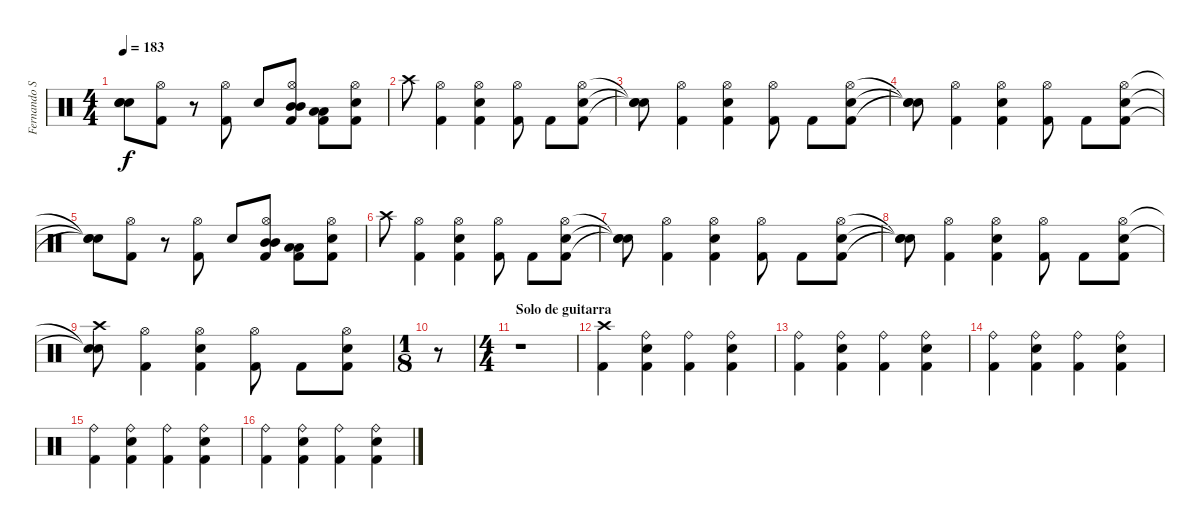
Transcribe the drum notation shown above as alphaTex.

\track ("Fernando Scarcella" "Fernando S") {instrument percussion}
\staff {score}
\articulation defaults
\ts (4 4)
\tempo 183
\clef neutral
\ks c
("Snare (hit)"{t} "Snare (hit)"{t} "Snare (hit)"{t}).8{dy f} ("Kick (hit) 2" "Hi-Hat (open)").8 r.8 ("Kick (hit) 2" "Hi-Hat (open)").8 "Snare (hit) 2".8 ("Mid Tom (hit)" "Hi-Hat (open)" "Mid Tom (hit)" "Kick (hit) 2").8 ("Kick (hit) 2" "Low Tom (hit)" "Low Tom (hit)").8 ("Kick (hit) 2" "Hi-Hat (open)" "Snare (hit) 2").8 |
"Crash high (hit)".8 ("Kick (hit) 2" "Hi-Hat (open)").4 ("Kick (hit) 2" "Snare (hit) 2" "Hi-Hat (open)").4 ("Kick (hit) 2" "Hi-Hat (open)").8 "Kick (hit) 2".8 ("Kick (hit) 2" "Snare (hit) 2" "Hi-Hat (open)").8 |
("Snare (hit)"{t} "Snare (hit)"{t} "Snare (hit)"{t}).8 ("Kick (hit) 2" "Hi-Hat (open)").4 ("Kick (hit) 2" "Snare (hit) 2" "Hi-Hat (open)").4 ("Kick (hit) 2" "Hi-Hat (open)").8 "Kick (hit) 2".8 ("Kick (hit) 2" "Snare (hit) 2" "Hi-Hat (open)").8 |
("Snare (hit)"{t} "Snare (hit)"{t} "Snare (hit)"{t}).8 ("Kick (hit) 2" "Hi-Hat (open)").4 ("Kick (hit) 2" "Snare (hit) 2" "Hi-Hat (open)").4 ("Kick (hit) 2" "Hi-Hat (open)").8 "Kick (hit) 2".8 ("Kick (hit) 2" "Snare (hit) 2" "Hi-Hat (open)").8 |
("Snare (hit)"{t} "Snare (hit)"{t} "Snare (hit)"{t}).8 ("Kick (hit) 2" "Hi-Hat (open)").8 r.8 ("Kick (hit) 2" "Hi-Hat (open)").8 "Snare (hit) 2".8 ("Mid Tom (hit)" "Hi-Hat (open)" "Mid Tom (hit)" "Kick (hit) 2").8 ("Kick (hit) 2" "Low Tom (hit)" "Low Tom (hit)").8 ("Kick (hit) 2" "Hi-Hat (open)" "Snare (hit) 2").8 |
"Crash high (hit)".8 ("Kick (hit) 2" "Hi-Hat (open)").4 ("Kick (hit) 2" "Snare (hit) 2" "Hi-Hat (open)").4 ("Kick (hit) 2" "Hi-Hat (open)").8 "Kick (hit) 2".8 ("Kick (hit) 2" "Snare (hit) 2" "Hi-Hat (open)").8 |
("Snare (hit)"{t} "Snare (hit)"{t} "Snare (hit)"{t}).8 ("Kick (hit) 2" "Hi-Hat (open)").4 ("Kick (hit) 2" "Snare (hit) 2" "Hi-Hat (open)").4 ("Kick (hit) 2" "Hi-Hat (open)").8 "Kick (hit) 2".8 ("Kick (hit) 2" "Snare (hit) 2" "Hi-Hat (open)").8 |
("Snare (hit)"{t} "Snare (hit)"{t} "Snare (hit)"{t}).8 ("Kick (hit) 2" "Hi-Hat (open)").4 ("Kick (hit) 2" "Snare (hit) 2" "Hi-Hat (open)").4 ("Kick (hit) 2" "Hi-Hat (open)").8 "Kick (hit) 2".8 ("Kick (hit) 2" "Snare (hit) 2" "Hi-Hat (open)").8 |
("Crash high (hit)" "Snare (hit)"{t} "Snare (hit)"{t}).8 ("Kick (hit) 2" "Hi-Hat (open)").4 ("Kick (hit) 2" "Snare (hit) 2" "Hi-Hat (open)").4 ("Kick (hit) 2" "Hi-Hat (open)").8 "Kick (hit) 2".8 ("Kick (hit) 2" "Snare (hit) 2" "Hi-Hat (open)").8 |
\ts (1 8)
r.8 |
\ts (4 4)
\section ("" "Solo de guitarra")
r.1 |
("Crash high (hit)" "Kick (hit) 2").4 ("Ride (bell)" "Kick (hit) 2" "Snare (hit) 2").4 ("Ride (bell)" "Kick (hit) 2").4 ("Ride (bell)" "Kick (hit) 2" "Snare (hit) 2").4 |
("Ride (bell)" "Kick (hit) 2").4 ("Ride (bell)" "Kick (hit) 2" "Snare (hit) 2").4 ("Ride (bell)" "Kick (hit) 2").4 ("Ride (bell)" "Kick (hit) 2" "Snare (hit) 2").4 |
("Ride (bell)" "Kick (hit) 2").4 ("Ride (bell)" "Kick (hit) 2" "Snare (hit) 2").4 ("Ride (bell)" "Kick (hit) 2").4 ("Ride (bell)" "Kick (hit) 2" "Snare (hit) 2").4 |
("Ride (bell)" "Kick (hit) 2").4 ("Ride (bell)" "Kick (hit) 2" "Snare (hit) 2").4 ("Ride (bell)" "Kick (hit) 2").4 ("Ride (bell)" "Kick (hit) 2" "Snare (hit) 2").4 |
("Ride (bell)" "Kick (hit) 2").4 ("Ride (bell)" "Kick (hit) 2" "Snare (hit) 2").4 ("Ride (bell)" "Kick (hit) 2").4 ("Ride (bell)" "Kick (hit) 2" "Snare (hit) 2").4
